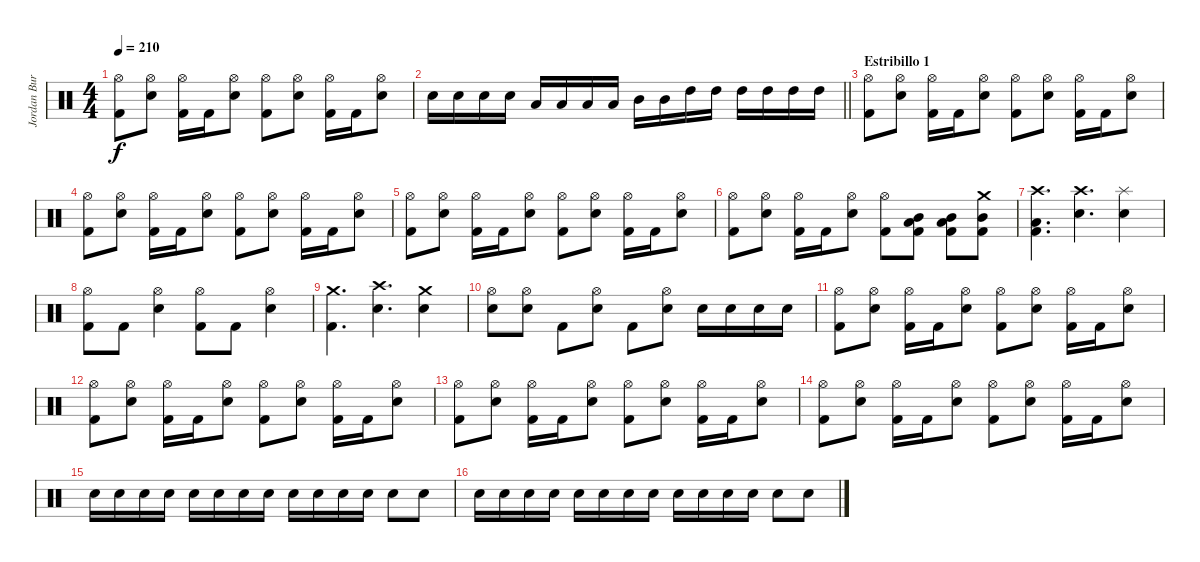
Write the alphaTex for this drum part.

\track ("Jordan Burns" "Jordan Bur") {instrument percussion}
\staff {score}
\articulation defaults
\ts (4 4)
\tempo 210
\clef neutral
\ks c
("Hi-Hat (open)" "Kick (hit) 2").8{dy f} ("Hi-Hat (open)" "Electric Snare (hit)").8 ("Hi-Hat (open)" "Kick (hit) 2").16 "Kick (hit) 2".16 ("Hi-Hat (open)" "Electric Snare (hit)").8 ("Hi-Hat (open)" "Kick (hit) 2").8 ("Hi-Hat (open)" "Electric Snare (hit)").8 ("Hi-Hat (open)" "Kick (hit) 2").16 "Kick (hit) 2".16 ("Hi-Hat (open)" "Electric Snare (hit)").8 |
\barLineRight lightlight "Electric Snare (hit)".16 "Electric Snare (hit)".16 "Electric Snare (hit)".16 "Electric Snare (hit)".16 "Low Tom (hit)".16 "Low Tom (hit)".16 "Low Tom (hit)".16 "Low Tom (hit)".16 "Mid Tom (hit)".16 "Mid Tom (hit)".16 "High Tom (hit)".16 "High Tom (hit)".16 "High Tom (hit)".16 "High Tom (hit)".16 "High Tom (hit)".16 "High Tom (hit)".16
|
\section ("" "Estribillo 1")
("Hi-Hat (open)" "Kick (hit) 2").8 ("Hi-Hat (open)" "Electric Snare (hit)").8 ("Hi-Hat (open)" "Kick (hit) 2").16 "Kick (hit) 2".16 ("Hi-Hat (open)" "Electric Snare (hit)").8 ("Hi-Hat (open)" "Kick (hit) 2").8 ("Hi-Hat (open)" "Electric Snare (hit)").8 ("Hi-Hat (open)" "Kick (hit) 2").16 "Kick (hit) 2".16 ("Hi-Hat (open)" "Electric Snare (hit)").8 |
("Hi-Hat (open)" "Kick (hit) 2").8 ("Hi-Hat (open)" "Electric Snare (hit)").8 ("Hi-Hat (open)" "Kick (hit) 2").16 "Kick (hit) 2".16 ("Hi-Hat (open)" "Electric Snare (hit)").8 ("Hi-Hat (open)" "Kick (hit) 2").8 ("Hi-Hat (open)" "Electric Snare (hit)").8 ("Hi-Hat (open)" "Kick (hit) 2").16 "Kick (hit) 2".16 ("Hi-Hat (open)" "Electric Snare (hit)").8 |
("Hi-Hat (open)" "Kick (hit) 2").8 ("Hi-Hat (open)" "Electric Snare (hit)").8 ("Hi-Hat (open)" "Kick (hit) 2").16 "Kick (hit) 2".16 ("Hi-Hat (open)" "Electric Snare (hit)").8 ("Hi-Hat (open)" "Kick (hit) 2").8 ("Hi-Hat (open)" "Electric Snare (hit)").8 ("Hi-Hat (open)" "Kick (hit) 2").16 "Kick (hit) 2".16 ("Hi-Hat (open)" "Electric Snare (hit)").8 |
("Hi-Hat (open)" "Kick (hit) 2").8 ("Hi-Hat (open)" "Electric Snare (hit)").8 ("Hi-Hat (open)" "Kick (hit) 2").16 "Kick (hit) 2".16 ("Hi-Hat (open)" "Electric Snare (hit)").8 ("Hi-Hat (open)" "Kick (hit) 2").8 ("Low Tom (hit)" "Mid Tom (hit)" "Kick (hit) 2").8 ("Low Tom (hit)" "Mid Tom (hit)" "Kick (hit) 2").8 ("Crash medium (hit)" "Mid Tom (hit)" "Kick (hit) 2").8 |
("Crash high (hit)" "Low Tom (hit)" "Kick (hit) 2").4{d} ("Crash high (hit)" "Electric Snare (hit)").4{d} ("Splash (hit)" "Electric Snare (hit)").4 |
("Hi-Hat (open)" "Kick (hit) 2").8 "Kick (hit) 2".8 ("Hi-Hat (open)" "Electric Snare (hit)").4 ("Hi-Hat (open)" "Kick (hit) 2").8 "Kick (hit) 2".8 ("Hi-Hat (open)" "Electric Snare (hit)").4 |
("Crash medium (hit)" "Kick (hit) 2").4{d} ("Crash high (hit)" "Electric Snare (hit)").4{d} ("Crash medium (hit)" "Electric Snare (hit)").4 |
("Hi-Hat (open)" "Electric Snare (hit)").8 ("Hi-Hat (open)" "Electric Snare (hit)").8 "Kick (hit) 2".8 ("Hi-Hat (open)" "Electric Snare (hit)").8 "Kick (hit) 2".8 ("Hi-Hat (open)" "Electric Snare (hit)").8 "Electric Snare (hit)".16 "Electric Snare (hit)".16 "Electric Snare (hit)".16 "Electric Snare (hit)".16 |
("Hi-Hat (open)" "Kick (hit) 2").8 ("Hi-Hat (open)" "Electric Snare (hit)").8 ("Hi-Hat (open)" "Kick (hit) 2").16 "Kick (hit) 2".16 ("Hi-Hat (open)" "Electric Snare (hit)").8 ("Hi-Hat (open)" "Kick (hit) 2").8 ("Hi-Hat (open)" "Electric Snare (hit)").8 ("Hi-Hat (open)" "Kick (hit) 2").16 "Kick (hit) 2".16 ("Hi-Hat (open)" "Electric Snare (hit)").8 |
("Hi-Hat (open)" "Kick (hit) 2").8 ("Hi-Hat (open)" "Electric Snare (hit)").8 ("Hi-Hat (open)" "Kick (hit) 2").16 "Kick (hit) 2".16 ("Hi-Hat (open)" "Electric Snare (hit)").8 ("Hi-Hat (open)" "Kick (hit) 2").8 ("Hi-Hat (open)" "Electric Snare (hit)").8 ("Hi-Hat (open)" "Kick (hit) 2").16 "Kick (hit) 2".16 ("Hi-Hat (open)" "Electric Snare (hit)").8 |
("Hi-Hat (open)" "Kick (hit) 2").8 ("Hi-Hat (open)" "Electric Snare (hit)").8 ("Hi-Hat (open)" "Kick (hit) 2").16 "Kick (hit) 2".16 ("Hi-Hat (open)" "Electric Snare (hit)").8 ("Hi-Hat (open)" "Kick (hit) 2").8 ("Hi-Hat (open)" "Electric Snare (hit)").8 ("Hi-Hat (open)" "Kick (hit) 2").16 "Kick (hit) 2".16 ("Hi-Hat (open)" "Electric Snare (hit)").8 |
("Hi-Hat (open)" "Kick (hit) 2").8 ("Hi-Hat (open)" "Electric Snare (hit)").8 ("Hi-Hat (open)" "Kick (hit) 2").16 "Kick (hit) 2".16 ("Hi-Hat (open)" "Electric Snare (hit)").8 ("Hi-Hat (open)" "Kick (hit) 2").8 ("Hi-Hat (open)" "Electric Snare (hit)").8 ("Hi-Hat (open)" "Kick (hit) 2").16 "Kick (hit) 2".16 ("Hi-Hat (open)" "Electric Snare (hit)").8 |
"Electric Snare (hit)".16 "Electric Snare (hit)".16 "Electric Snare (hit)".16 "Electric Snare (hit)".16 "Electric Snare (hit)".16 "Electric Snare (hit)".16 "Electric Snare (hit)".16 "Electric Snare (hit)".16 "Electric Snare (hit)".16 "Electric Snare (hit)".16 "Electric Snare (hit)".16 "Electric Snare (hit)".16 "Electric Snare (hit)".8 "Electric Snare (hit)".8 |
"Electric Snare (hit)".16 "Electric Snare (hit)".16 "Electric Snare (hit)".16 "Electric Snare (hit)".16 "Electric Snare (hit)".16 "Electric Snare (hit)".16 "Electric Snare (hit)".16 "Electric Snare (hit)".16 "Electric Snare (hit)".16 "Electric Snare (hit)".16 "Electric Snare (hit)".16 "Electric Snare (hit)".16 "Electric Snare (hit)".8 "Electric Snare (hit)".8
